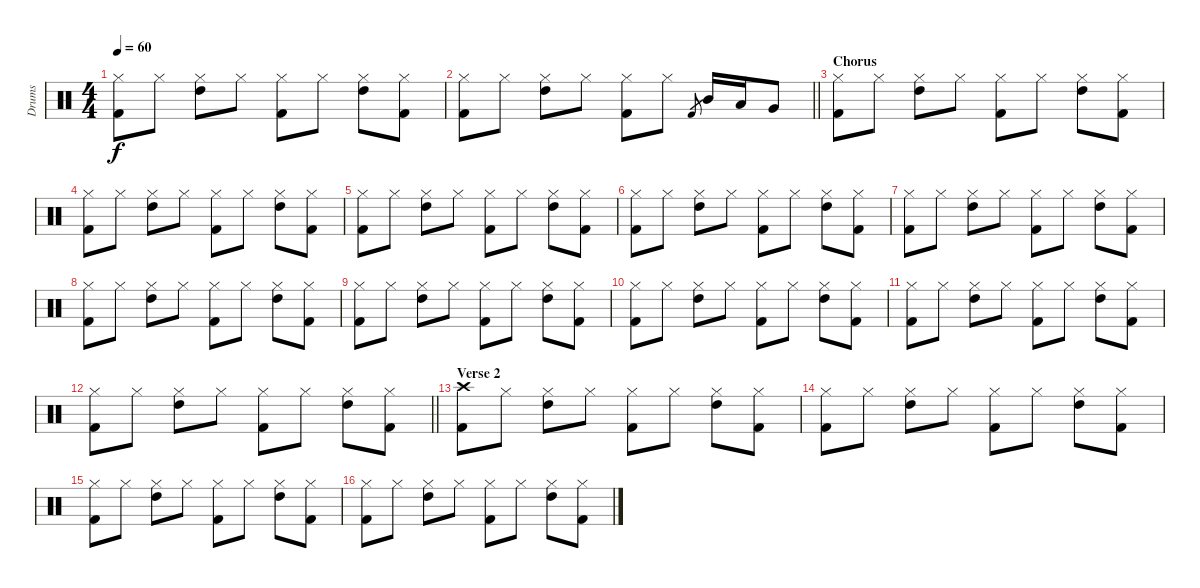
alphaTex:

\track ("Drums" "Drums") {instrument percussion}
\staff {score}
\articulation defaults
\ts (4 4)
\tempo 60
\clef neutral
\ks c
("Hi-Hat (closed)" "Kick (hit) 2").8{dy f} "Hi-Hat (closed)".8 ("Hi-Hat (closed)" "High Tom (hit)").8 "Hi-Hat (closed)".8 ("Hi-Hat (closed)" "Kick (hit) 2").8 "Hi-Hat (closed)".8 ("Hi-Hat (closed)" "High Tom (hit)").8 ("Hi-Hat (closed)" "Kick (hit) 2").8 |
\barLineRight lightlight
("Hi-Hat (closed)" "Kick (hit) 2").8 "Hi-Hat (closed)".8 ("Hi-Hat (closed)" "High Tom (hit)").8 "Hi-Hat (closed)".8 ("Hi-Hat (closed)" "Kick (hit) 2").8 "Hi-Hat (closed)".8 "Kick (hit) 2".8{gr} "Mid Tom (hit)".16 "Low Tom (hit)".16 "Very Low Tom (hit)".8 |
\section ("" "Chorus")
("Hi-Hat (closed)" "Kick (hit) 2").8 "Hi-Hat (closed)".8 ("Hi-Hat (closed)" "High Tom (hit)").8 "Hi-Hat (closed)".8 ("Hi-Hat (closed)" "Kick (hit) 2").8 "Hi-Hat (closed)".8 ("Hi-Hat (closed)" "High Tom (hit)").8 ("Hi-Hat (closed)" "Kick (hit) 2").8 |
("Hi-Hat (closed)" "Kick (hit) 2").8 "Hi-Hat (closed)".8 ("Hi-Hat (closed)" "High Tom (hit)").8 "Hi-Hat (closed)".8 ("Hi-Hat (closed)" "Kick (hit) 2").8 "Hi-Hat (closed)".8 ("Hi-Hat (closed)" "High Tom (hit)").8 ("Hi-Hat (closed)" "Kick (hit) 2").8 |
("Hi-Hat (closed)" "Kick (hit) 2").8 "Hi-Hat (closed)".8 ("Hi-Hat (closed)" "High Tom (hit)").8 "Hi-Hat (closed)".8 ("Hi-Hat (closed)" "Kick (hit) 2").8 "Hi-Hat (closed)".8 ("Hi-Hat (closed)" "High Tom (hit)").8 ("Hi-Hat (closed)" "Kick (hit) 2").8 |
("Hi-Hat (closed)" "Kick (hit) 2").8 "Hi-Hat (closed)".8 ("Hi-Hat (closed)" "High Tom (hit)").8 "Hi-Hat (closed)".8 ("Hi-Hat (closed)" "Kick (hit) 2").8 "Hi-Hat (closed)".8 ("Hi-Hat (closed)" "High Tom (hit)").8 ("Hi-Hat (closed)" "Kick (hit) 2").8 |
("Hi-Hat (closed)" "Kick (hit) 2").8 "Hi-Hat (closed)".8 ("Hi-Hat (closed)" "High Tom (hit)").8 "Hi-Hat (closed)".8 ("Hi-Hat (closed)" "Kick (hit) 2").8 "Hi-Hat (closed)".8 ("Hi-Hat (closed)" "High Tom (hit)").8 ("Hi-Hat (closed)" "Kick (hit) 2").8 |
("Hi-Hat (closed)" "Kick (hit) 2").8 "Hi-Hat (closed)".8 ("Hi-Hat (closed)" "High Tom (hit)").8 "Hi-Hat (closed)".8 ("Hi-Hat (closed)" "Kick (hit) 2").8 "Hi-Hat (closed)".8 ("Hi-Hat (closed)" "High Tom (hit)").8 ("Hi-Hat (closed)" "Kick (hit) 2").8 |
("Hi-Hat (closed)" "Kick (hit) 2").8 "Hi-Hat (closed)".8 ("Hi-Hat (closed)" "High Tom (hit)").8 "Hi-Hat (closed)".8 ("Hi-Hat (closed)" "Kick (hit) 2").8 "Hi-Hat (closed)".8 ("Hi-Hat (closed)" "High Tom (hit)").8 ("Hi-Hat (closed)" "Kick (hit) 2").8 |
("Hi-Hat (closed)" "Kick (hit) 2").8 "Hi-Hat (closed)".8 ("Hi-Hat (closed)" "High Tom (hit)").8 "Hi-Hat (closed)".8 ("Hi-Hat (closed)" "Kick (hit) 2").8 "Hi-Hat (closed)".8 ("Hi-Hat (closed)" "High Tom (hit)").8 ("Hi-Hat (closed)" "Kick (hit) 2").8 |
("Hi-Hat (closed)" "Kick (hit) 2").8 "Hi-Hat (closed)".8 ("Hi-Hat (closed)" "High Tom (hit)").8 "Hi-Hat (closed)".8 ("Hi-Hat (closed)" "Kick (hit) 2").8 "Hi-Hat (closed)".8 ("Hi-Hat (closed)" "High Tom (hit)").8 ("Hi-Hat (closed)" "Kick (hit) 2").8 |
\barLineRight lightlight
("Hi-Hat (closed)" "Kick (hit) 2").8 "Hi-Hat (closed)".8 ("Hi-Hat (closed)" "High Tom (hit)").8 "Hi-Hat (closed)".8 ("Hi-Hat (closed)" "Kick (hit) 2").8 "Hi-Hat (closed)".8 ("Hi-Hat (closed)" "High Tom (hit)").8 ("Hi-Hat (closed)" "Kick (hit) 2").8 |
\section ("" "Verse 2")
("Crash high (hit)" "Kick (hit) 2").8 "Hi-Hat (closed)".8 ("Hi-Hat (closed)" "High Tom (hit)").8 "Hi-Hat (closed)".8 ("Hi-Hat (closed)" "Kick (hit) 2").8 "Hi-Hat (closed)".8 ("Hi-Hat (closed)" "High Tom (hit)").8 ("Hi-Hat (closed)" "Kick (hit) 2").8 |
("Hi-Hat (closed)" "Kick (hit) 2").8 "Hi-Hat (closed)".8 ("Hi-Hat (closed)" "High Tom (hit)").8 "Hi-Hat (closed)".8 ("Hi-Hat (closed)" "Kick (hit) 2").8 "Hi-Hat (closed)".8 ("Hi-Hat (closed)" "High Tom (hit)").8 ("Hi-Hat (closed)" "Kick (hit) 2").8 |
("Hi-Hat (closed)" "Kick (hit) 2").8 "Hi-Hat (closed)".8 ("Hi-Hat (closed)" "High Tom (hit)").8 "Hi-Hat (closed)".8 ("Hi-Hat (closed)" "Kick (hit) 2").8 "Hi-Hat (closed)".8 ("Hi-Hat (closed)" "High Tom (hit)").8 ("Hi-Hat (closed)" "Kick (hit) 2").8 |
("Hi-Hat (closed)" "Kick (hit) 2").8 "Hi-Hat (closed)".8 ("Hi-Hat (closed)" "High Tom (hit)").8 "Hi-Hat (closed)".8 ("Hi-Hat (closed)" "Kick (hit) 2").8 "Hi-Hat (closed)".8 ("Hi-Hat (closed)" "High Tom (hit)").8 ("Hi-Hat (closed)" "Kick (hit) 2").8
